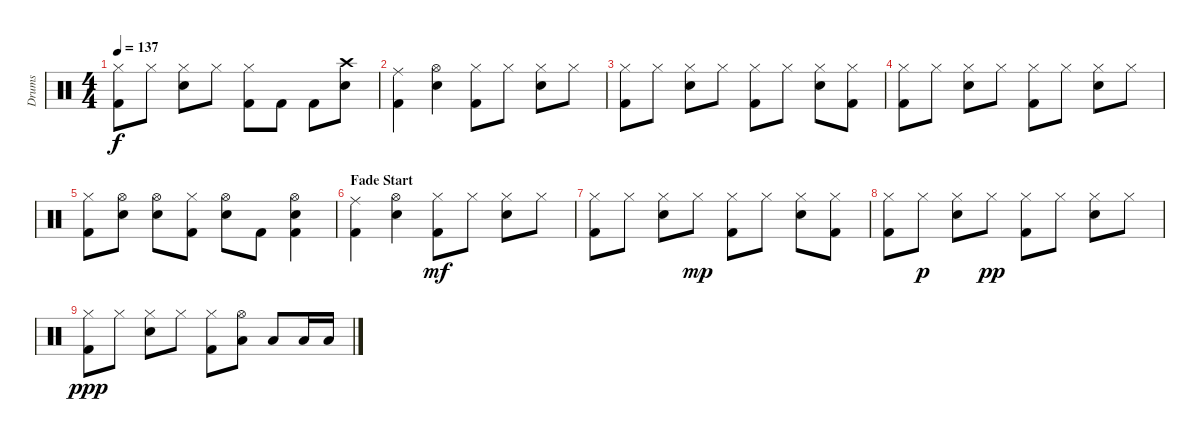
\track ("Drums" "Drums") {instrument percussion}
\staff {score}
\articulation defaults
\ts (4 4)
\tempo 137
\clef neutral
\ks c
("Hi-Hat (closed)" "Kick (hit) 2").8{dy f} "Hi-Hat (closed)".8 ("Hi-Hat (closed)" "Snare (hit) 2").8 "Hi-Hat (closed)".8 ("Hi-Hat (closed)" "Kick (hit) 2").8 "Kick (hit) 2".8 "Kick (hit) 2".8 ("Crash high (hit)" "Snare (hit) 2").8 |
("Ride (middle)" "Kick (hit) 2").4 ("Hi-Hat (open)" "Snare (hit) 2").4 ("Hi-Hat (closed)" "Kick (hit) 2").8 "Hi-Hat (closed)".8 ("Hi-Hat (closed)" "Snare (hit) 2").8 "Hi-Hat (closed)".8 |
("Hi-Hat (closed)" "Kick (hit) 2").8 "Hi-Hat (closed)".8 ("Hi-Hat (closed)" "Snare (hit) 2").8 "Hi-Hat (closed)".8 ("Hi-Hat (closed)" "Kick (hit) 2").8 "Hi-Hat (closed)".8 ("Hi-Hat (closed)" "Snare (hit) 2").8 ("Hi-Hat (closed)" "Kick (hit) 2").8 |
("Hi-Hat (closed)" "Kick (hit) 2").8 "Hi-Hat (closed)".8 ("Hi-Hat (closed)" "Snare (hit) 2").8 "Hi-Hat (closed)".8 ("Hi-Hat (closed)" "Kick (hit) 2").8 "Hi-Hat (closed)".8 ("Hi-Hat (closed)" "Snare (hit) 2").8 "Hi-Hat (closed)".8 |
("Hi-Hat (closed)" "Kick (hit) 2").8 ("Hi-Hat (open)" "Snare (hit) 2").8 ("Hi-Hat (open)" "Snare (hit) 2").8 ("Hi-Hat (closed)" "Kick (hit) 2").8 ("Hi-Hat (open)" "Snare (hit) 2").8 "Kick (hit) 2".8 ("Hi-Hat (open)" "Snare (hit) 2" "Kick (hit) 2").4 |
\section ("" "Fade Start")
("Ride (middle)" "Kick (hit) 2").4 ("Hi-Hat (open)" "Snare (hit) 2").4 ("Hi-Hat (closed)" "Kick (hit) 2").8{dy mf} "Hi-Hat (closed)".8 ("Hi-Hat (closed)" "Snare (hit) 2").8 "Hi-Hat (closed)".8 |
("Hi-Hat (closed)" "Kick (hit) 2").8 "Hi-Hat (closed)".8 ("Hi-Hat (closed)" "Snare (hit) 2").8 "Hi-Hat (closed)".8{dy mp} ("Hi-Hat (closed)" "Kick (hit) 2").8 "Hi-Hat (closed)".8 ("Hi-Hat (closed)" "Snare (hit) 2").8 ("Hi-Hat (closed)" "Kick (hit) 2").8 |
("Hi-Hat (closed)" "Kick (hit) 2").8 "Hi-Hat (closed)".8{dy p} ("Hi-Hat (closed)" "Snare (hit) 2").8 "Hi-Hat (closed)".8{dy pp} ("Hi-Hat (closed)" "Kick (hit) 2").8 "Hi-Hat (closed)".8 ("Hi-Hat (closed)" "Snare (hit) 2").8 "Hi-Hat (closed)".8 |
("Hi-Hat (closed)" "Kick (hit) 2").8{dy ppp} "Hi-Hat (closed)".8 ("Hi-Hat (closed)" "Snare (hit) 2").8 "Hi-Hat (closed)".8 ("Hi-Hat (closed)" "Kick (hit) 2").8 ("Hi-Hat (open)" "Low Tom (hit)").8 "Low Tom (hit)".8 "Low Tom (hit)".16 "Low Tom (hit)".16
